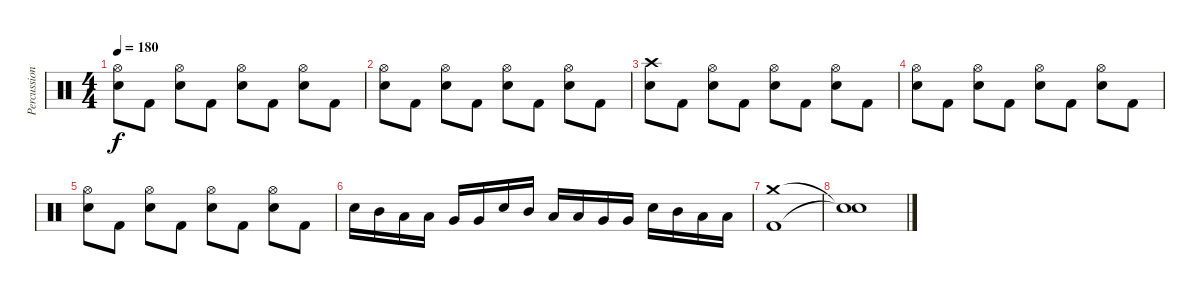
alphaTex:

\track ("Percussion" "Percussion") {instrument percussion}
\staff {score}
\articulation defaults
\ts (4 4)
\tempo 180
\clef neutral
\ks c
("Hi-Hat (open)" "Snare (hit) 2").8{dy f} "Kick (hit) 2".8 ("Hi-Hat (open)" "Snare (hit) 2").8 "Kick (hit) 2".8 ("Hi-Hat (open)" "Snare (hit) 2").8 "Kick (hit) 2".8 ("Hi-Hat (open)" "Snare (hit) 2").8 "Kick (hit) 2".8 |
("Hi-Hat (open)" "Snare (hit) 2").8 "Kick (hit) 2".8 ("Hi-Hat (open)" "Snare (hit) 2").8 "Kick (hit) 2".8 ("Hi-Hat (open)" "Snare (hit) 2").8 "Kick (hit) 2".8 ("Hi-Hat (open)" "Snare (hit) 2").8 "Kick (hit) 2".8 |
("Crash high (hit)" "Snare (hit) 2").8 "Kick (hit) 2".8 ("Hi-Hat (open)" "Snare (hit) 2").8 "Kick (hit) 2".8 ("Hi-Hat (open)" "Snare (hit) 2").8 "Kick (hit) 2".8 ("Hi-Hat (open)" "Snare (hit) 2").8 "Kick (hit) 2".8 |
("Hi-Hat (open)" "Snare (hit) 2").8 "Kick (hit) 2".8 ("Hi-Hat (open)" "Snare (hit) 2").8 "Kick (hit) 2".8 ("Hi-Hat (open)" "Snare (hit) 2").8 "Kick (hit) 2".8 ("Hi-Hat (open)" "Snare (hit) 2").8 "Kick (hit) 2".8 |
("Hi-Hat (open)" "Snare (hit) 2").8 "Kick (hit) 2".8 ("Hi-Hat (open)" "Snare (hit) 2").8 "Kick (hit) 2".8 ("Hi-Hat (open)" "Snare (hit) 2").8 "Kick (hit) 2".8 ("Hi-Hat (open)" "Snare (hit) 2").8 "Kick (hit) 2".8 |
"Snare (hit) 2".16 "Mid Tom (hit)".16 "Low Tom (hit)".16 "Low Tom (hit)".16 "Very Low Tom (hit)".16 "Very Low Tom (hit)".16 "Snare (hit) 2".16 "Mid Tom (hit)".16 "Low Tom (hit)".16 "Low Tom (hit)".16 "Very Low Tom (hit)".16 "Very Low Tom (hit)".16 "Snare (hit) 2".16 "Mid Tom (hit)".16 "Low Tom (hit)".16 "Low Tom (hit)".16 |
("Crash medium (hit)" "Kick (hit) 2").1 |
("Snare (hit)"{t} "Snare (hit)"{t}).1
